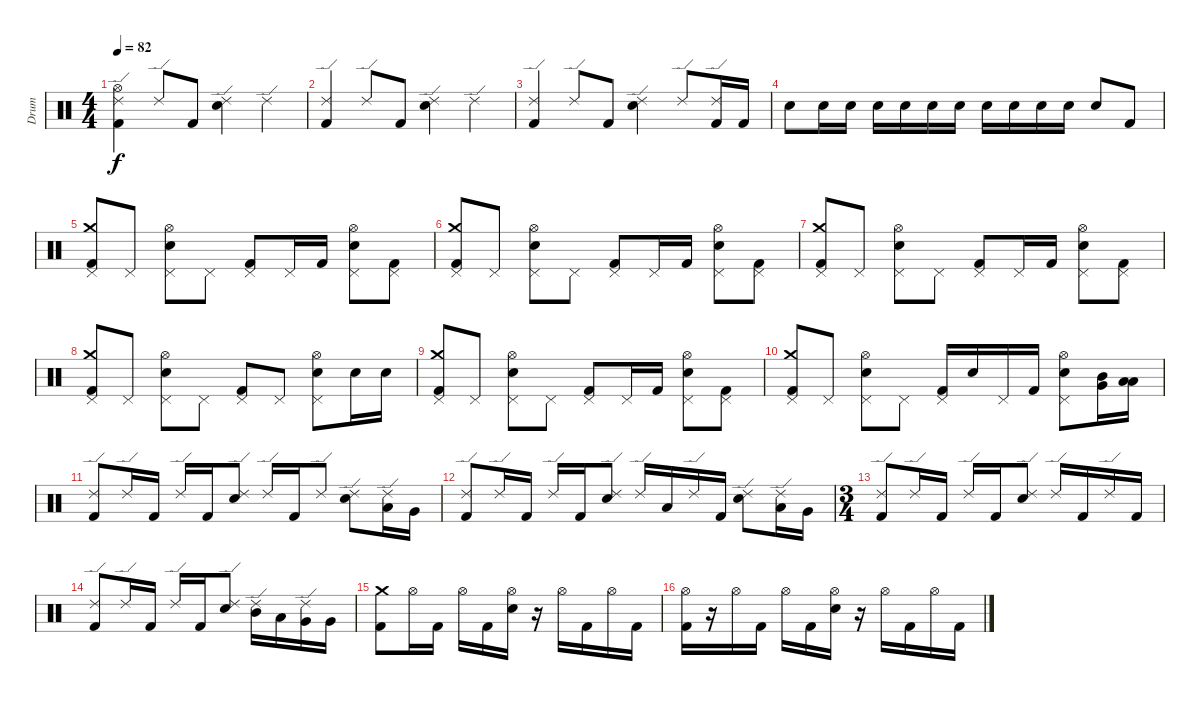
\track ("Drum" "Drum") {instrument percussion}
\staff {score}
\articulation defaults
\ts (4 4)
\tempo 82
\clef neutral
\ks c
("Hi-Hat (open)" "Kick (hit) 2" "Ride (edge) 2").4{dy f} "Ride (edge) 2".8 "Kick (hit) 2".8 ("Electric Snare (hit)" "Ride (edge) 2").4 "Ride (edge) 2".4 |
("Kick (hit) 2" "Ride (edge) 2").4 "Ride (edge) 2".8 "Kick (hit) 2".8 ("Electric Snare (hit)" "Ride (edge) 2").4 "Ride (edge) 2".4 |
("Kick (hit) 2" "Ride (edge) 2").4 "Ride (edge) 2".8 "Kick (hit) 2".8 ("Electric Snare (hit)" "Ride (edge) 2").4 "Ride (edge) 2".8 ("Ride (edge) 2" "Kick (hit) 2").16 "Kick (hit) 2".16 |
"Electric Snare (hit)".8 "Electric Snare (hit)".16{volume 6} "Electric Snare (hit)".16{volume 7} "Electric Snare (hit)".16{volume 8} "Electric Snare (hit)".16{volume 9} "Electric Snare (hit)".16{volume 9} "Electric Snare (hit)".16{volume 10} "Electric Snare (hit)".16{volume 11} "Electric Snare (hit)".16{volume 12} "Electric Snare (hit)".16{volume 13} "Electric Snare (hit)".16{volume 14} "Electric Snare (hit)".8{volume 15} "Kick (hit) 2".8{volume 16} |
("Crash medium (hit)" "Kick (hit) 2" "Pedal Hi-Hat (hit)").8 "Pedal Hi-Hat (hit)".8 ("Electric Snare (hit)" "Hi-Hat (open)" "Pedal Hi-Hat (hit)").8 "Pedal Hi-Hat (hit)".8 ("Kick (hit) 2" "Pedal Hi-Hat (hit)").8 "Pedal Hi-Hat (hit)".16 "Kick (hit) 2".16 ("Electric Snare (hit)" "Hi-Hat (open)" "Pedal Hi-Hat (hit)").8 ("Kick (hit) 2" "Pedal Hi-Hat (hit)").8 |
("Crash medium (hit)" "Kick (hit) 2" "Pedal Hi-Hat (hit)").8 "Pedal Hi-Hat (hit)".8 ("Electric Snare (hit)" "Hi-Hat (open)" "Pedal Hi-Hat (hit)").8 "Pedal Hi-Hat (hit)".8 ("Kick (hit) 2" "Pedal Hi-Hat (hit)").8 "Pedal Hi-Hat (hit)".16 "Kick (hit) 2".16 ("Electric Snare (hit)" "Hi-Hat (open)" "Pedal Hi-Hat (hit)").8 ("Kick (hit) 2" "Pedal Hi-Hat (hit)").8 |
("Crash medium (hit)" "Kick (hit) 2" "Pedal Hi-Hat (hit)").8 "Pedal Hi-Hat (hit)".8 ("Electric Snare (hit)" "Hi-Hat (open)" "Pedal Hi-Hat (hit)").8 "Pedal Hi-Hat (hit)".8 ("Kick (hit) 2" "Pedal Hi-Hat (hit)").8 "Pedal Hi-Hat (hit)".16 "Kick (hit) 2".16 ("Electric Snare (hit)" "Hi-Hat (open)" "Pedal Hi-Hat (hit)").8 ("Kick (hit) 2" "Pedal Hi-Hat (hit)").8 |
("Crash medium (hit)" "Kick (hit) 2" "Pedal Hi-Hat (hit)").8 "Pedal Hi-Hat (hit)".8 ("Electric Snare (hit)" "Hi-Hat (open)" "Pedal Hi-Hat (hit)").8 "Pedal Hi-Hat (hit)".8 ("Kick (hit) 2" "Pedal Hi-Hat (hit)").8 "Pedal Hi-Hat (hit)".8 ("Electric Snare (hit)" "Hi-Hat (open)" "Pedal Hi-Hat (hit)").8 "Electric Snare (hit)".16 "Electric Snare (hit)".16 |
("Crash medium (hit)" "Kick (hit) 2" "Pedal Hi-Hat (hit)").8 "Pedal Hi-Hat (hit)".8 ("Electric Snare (hit)" "Hi-Hat (open)" "Pedal Hi-Hat (hit)").8 "Pedal Hi-Hat (hit)".8 ("Kick (hit) 2" "Pedal Hi-Hat (hit)").8 "Pedal Hi-Hat (hit)".16 "Kick (hit) 2".16 ("Electric Snare (hit)" "Hi-Hat (open)" "Pedal Hi-Hat (hit)").8 ("Kick (hit) 2" "Pedal Hi-Hat (hit)").8 |
("Crash medium (hit)" "Kick (hit) 2" "Pedal Hi-Hat (hit)").8 "Pedal Hi-Hat (hit)".8 ("Electric Snare (hit)" "Hi-Hat (open)" "Pedal Hi-Hat (hit)").8 "Pedal Hi-Hat (hit)".8 ("Kick (hit) 2" "Pedal Hi-Hat (hit)").16 "Electric Snare (hit)".16 "Pedal Hi-Hat (hit)".16 "Kick (hit) 2".16 ("Electric Snare (hit)" "Hi-Hat (open)" "Pedal Hi-Hat (hit)").8 ("Mid Tom (hit)" "Very Low Tom (hit)").16 ("Low Tom (hit)" "Low Floor Tom (hit)").16 |
("Kick (hit) 2" "Ride (edge) 2").8 "Ride (edge) 2".16 "Kick (hit) 2".16 "Ride (edge) 2".16 "Kick (hit) 2".16 ("Electric Snare (hit)" "Ride (edge) 2").8 "Ride (edge) 2".16 "Kick (hit) 2".16 "Ride (edge) 2".8 ("Electric Snare (hit)" "Ride (edge) 2").8 ("Low Tom (hit)" "Ride (edge) 2").16 "Very Low Tom (hit)".16 |
("Kick (hit) 2" "Ride (edge) 2").8 "Ride (edge) 2".16 "Kick (hit) 2".16 "Ride (edge) 2".16 "Kick (hit) 2".16 ("Electric Snare (hit)" "Ride (edge) 2").8 "Ride (edge) 2".16 "Low Tom (hit)".16 "Ride (edge) 2".16 "Kick (hit) 2".16 ("Electric Snare (hit)" "Ride (edge) 2").8 ("Low Tom (hit)" "Ride (edge) 2").16 "Very Low Tom (hit)".16 |
\ts (3 4)
("Kick (hit) 2" "Ride (edge) 2").8 "Ride (edge) 2".16 "Kick (hit) 2".16 "Ride (edge) 2".16 "Kick (hit) 2".16 ("Electric Snare (hit)" "Ride (edge) 2").8 "Ride (edge) 2".16 "Kick (hit) 2".16 "Ride (edge) 2".16 "Kick (hit) 2".16 |
("Kick (hit) 2" "Ride (edge) 2").8 "Ride (edge) 2".16 "Kick (hit) 2".16 "Ride (edge) 2".16 "Kick (hit) 2".16 ("Electric Snare (hit)" "Ride (edge) 2").8 ("Mid Tom (hit)" "Ride (edge) 2").16 "Low Tom (hit)".16 ("Very Low Tom (hit)" "Ride (edge) 2").16 "Very Low Tom (hit)".16 |
("Crash medium (hit)" "Kick (hit) 2").8 "Hi-Hat (open)".16 "Kick (hit) 2".16 "Hi-Hat (open)".16 "Kick (hit) 2".16 ("Hi-Hat (open)" "Electric Snare (hit)").16 r.16 "Hi-Hat (open)".16 "Kick (hit) 2".16 "Hi-Hat (open)".16 "Kick (hit) 2".16 |
("Hi-Hat (open)" "Kick (hit) 2").16 r.16 "Hi-Hat (open)".16 "Kick (hit) 2".16 "Hi-Hat (open)".16 "Kick (hit) 2".16 ("Hi-Hat (open)" "Electric Snare (hit)").16 r.16 "Hi-Hat (open)".16 "Kick (hit) 2".16 "Hi-Hat (open)".16 "Kick (hit) 2".16
